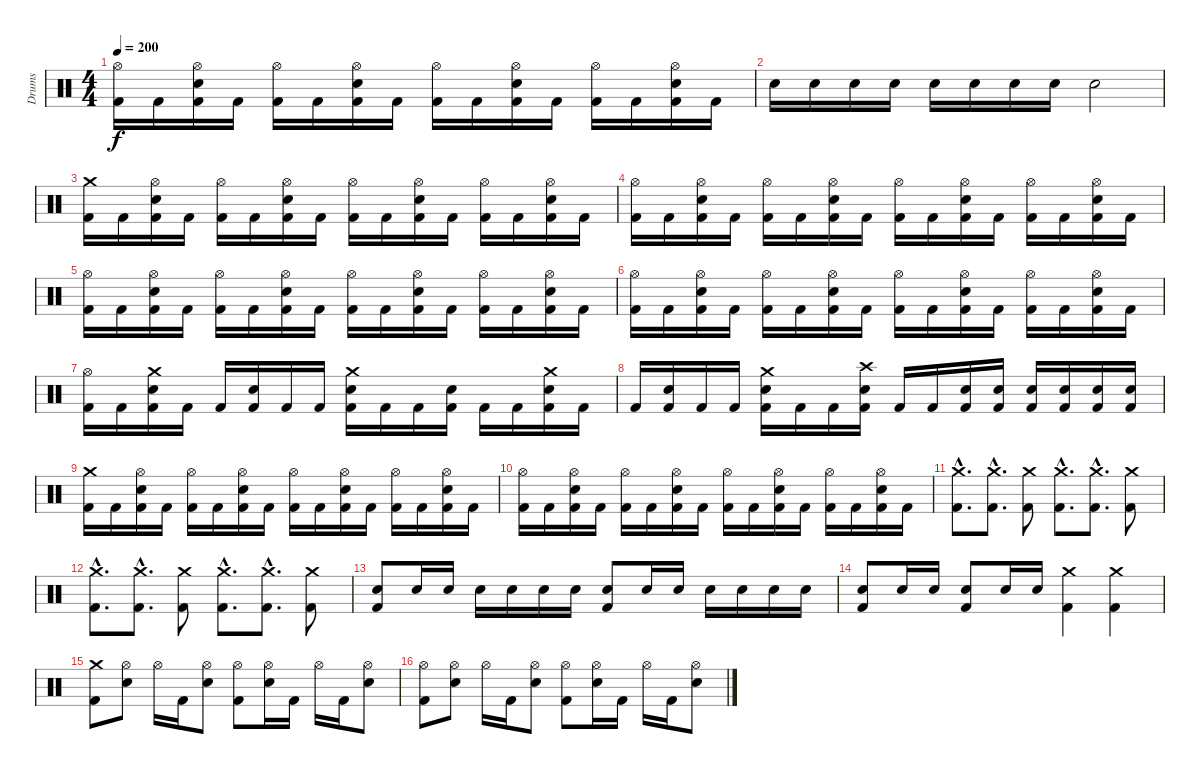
\track ("Drums" "Drums") {instrument percussion}
\staff {score}
\articulation defaults
\ts (4 4)
\tempo 200
\clef neutral
\ks c
("Hi-Hat (open)" "Kick (hit) 2").16{dy f} "Kick (hit) 2".16 ("Hi-Hat (open)" "Snare (hit) 2" "Kick (hit) 2").16 "Kick (hit) 2".16 ("Hi-Hat (open)" "Kick (hit) 2").16 "Kick (hit) 2".16 ("Hi-Hat (open)" "Snare (hit) 2" "Kick (hit) 2").16 "Kick (hit) 2".16 ("Hi-Hat (open)" "Kick (hit) 2").16 "Kick (hit) 2".16 ("Hi-Hat (open)" "Snare (hit) 2" "Kick (hit) 2").16 "Kick (hit) 2".16 ("Hi-Hat (open)" "Kick (hit) 2").16 "Kick (hit) 2".16 ("Hi-Hat (open)" "Snare (hit) 2" "Kick (hit) 2").16 "Kick (hit) 2".16 |
"Snare (hit) 2".16 "Snare (hit) 2".16 "Snare (hit) 2".16 "Snare (hit) 2".16 "Snare (hit) 2".16 "Snare (hit) 2".16 "Snare (hit) 2".16 "Snare (hit) 2".16 "Snare (hit) 2".2 |
("Crash medium (hit)" "Kick (hit) 2").16 "Kick (hit) 2".16 ("Hi-Hat (open)" "Snare (hit) 2" "Kick (hit) 2").16 "Kick (hit) 2".16 ("Hi-Hat (open)" "Kick (hit) 2").16 "Kick (hit) 2".16 ("Hi-Hat (open)" "Snare (hit) 2" "Kick (hit) 2").16 "Kick (hit) 2".16 ("Hi-Hat (open)" "Kick (hit) 2").16 "Kick (hit) 2".16 ("Hi-Hat (open)" "Snare (hit) 2" "Kick (hit) 2").16 "Kick (hit) 2".16 ("Hi-Hat (open)" "Kick (hit) 2").16 "Kick (hit) 2".16 ("Hi-Hat (open)" "Snare (hit) 2" "Kick (hit) 2").16 "Kick (hit) 2".16 |
("Hi-Hat (open)" "Kick (hit) 2").16 "Kick (hit) 2".16 ("Hi-Hat (open)" "Snare (hit) 2" "Kick (hit) 2").16 "Kick (hit) 2".16 ("Hi-Hat (open)" "Kick (hit) 2").16 "Kick (hit) 2".16 ("Hi-Hat (open)" "Snare (hit) 2" "Kick (hit) 2").16 "Kick (hit) 2".16 ("Hi-Hat (open)" "Kick (hit) 2").16 "Kick (hit) 2".16 ("Hi-Hat (open)" "Snare (hit) 2" "Kick (hit) 2").16 "Kick (hit) 2".16 ("Hi-Hat (open)" "Kick (hit) 2").16 "Kick (hit) 2".16 ("Hi-Hat (open)" "Snare (hit) 2" "Kick (hit) 2").16 "Kick (hit) 2".16 |
("Hi-Hat (open)" "Kick (hit) 2").16 "Kick (hit) 2".16 ("Hi-Hat (open)" "Snare (hit) 2" "Kick (hit) 2").16 "Kick (hit) 2".16 ("Hi-Hat (open)" "Kick (hit) 2").16 "Kick (hit) 2".16 ("Hi-Hat (open)" "Snare (hit) 2" "Kick (hit) 2").16 "Kick (hit) 2".16 ("Hi-Hat (open)" "Kick (hit) 2").16 "Kick (hit) 2".16 ("Hi-Hat (open)" "Snare (hit) 2" "Kick (hit) 2").16 "Kick (hit) 2".16 ("Hi-Hat (open)" "Kick (hit) 2").16 "Kick (hit) 2".16 ("Hi-Hat (open)" "Snare (hit) 2" "Kick (hit) 2").16 "Kick (hit) 2".16 |
("Hi-Hat (open)" "Kick (hit) 2").16 "Kick (hit) 2".16 ("Hi-Hat (open)" "Snare (hit) 2" "Kick (hit) 2").16 "Kick (hit) 2".16 ("Hi-Hat (open)" "Kick (hit) 2").16 "Kick (hit) 2".16 ("Hi-Hat (open)" "Snare (hit) 2" "Kick (hit) 2").16 "Kick (hit) 2".16 ("Hi-Hat (open)" "Kick (hit) 2").16 "Kick (hit) 2".16 ("Hi-Hat (open)" "Snare (hit) 2" "Kick (hit) 2").16 "Kick (hit) 2".16 ("Hi-Hat (open)" "Kick (hit) 2").16 "Kick (hit) 2".16 ("Hi-Hat (open)" "Snare (hit) 2" "Kick (hit) 2").16 "Kick (hit) 2".16 |
("Hi-Hat (open)" "Kick (hit) 2").16 "Kick (hit) 2".16 ("Crash medium (hit)" "Snare (hit) 2" "Kick (hit) 2").16 "Kick (hit) 2".16 "Kick (hit) 2".16 ("Snare (hit) 2" "Kick (hit) 2").16 "Kick (hit) 2".16 "Kick (hit) 2".16 ("Crash medium (hit)" "Snare (hit) 2" "Kick (hit) 2").16 "Kick (hit) 2".16 "Kick (hit) 2".16 ("Snare (hit) 2" "Kick (hit) 2").16 "Kick (hit) 2".16 "Kick (hit) 2".16 ("Crash medium (hit)" "Snare (hit) 2" "Kick (hit) 2").16 "Kick (hit) 2".16 |
"Kick (hit) 2".16 ("Snare (hit) 2" "Kick (hit) 2").16 "Kick (hit) 2".16 "Kick (hit) 2".16 ("Crash medium (hit)" "Snare (hit) 2" "Kick (hit) 2").16 "Kick (hit) 2".16 "Kick (hit) 2".16 ("Crash high (hit)" "Snare (hit) 2" "Kick (hit) 2").16 "Kick (hit) 2".16 "Kick (hit) 2".16 ("Snare (hit) 2" "Kick (hit) 2").16 ("Snare (hit) 2" "Kick (hit) 2").16 ("Snare (hit) 2" "Kick (hit) 2").16 ("Snare (hit) 2" "Kick (hit) 2").16 ("Snare (hit) 2" "Kick (hit) 2").16 ("Snare (hit) 2" "Kick (hit) 2").16 |
("Crash medium (hit)" "Kick (hit) 2").16 "Kick (hit) 2".16 ("Hi-Hat (open)" "Snare (hit) 2" "Kick (hit) 2").16 "Kick (hit) 2".16 ("Hi-Hat (open)" "Kick (hit) 2").16 "Kick (hit) 2".16 ("Hi-Hat (open)" "Snare (hit) 2" "Kick (hit) 2").16 "Kick (hit) 2".16 ("Hi-Hat (open)" "Kick (hit) 2").16 "Kick (hit) 2".16 ("Hi-Hat (open)" "Snare (hit) 2" "Kick (hit) 2").16 "Kick (hit) 2".16 ("Hi-Hat (open)" "Kick (hit) 2").16 "Kick (hit) 2".16 ("Hi-Hat (open)" "Snare (hit) 2" "Kick (hit) 2").16 "Kick (hit) 2".16 |
("Hi-Hat (open)" "Kick (hit) 2").16 "Kick (hit) 2".16 ("Hi-Hat (open)" "Snare (hit) 2" "Kick (hit) 2").16 "Kick (hit) 2".16 ("Hi-Hat (open)" "Kick (hit) 2").16 "Kick (hit) 2".16 ("Hi-Hat (open)" "Snare (hit) 2" "Kick (hit) 2").16 "Kick (hit) 2".16 ("Hi-Hat (open)" "Kick (hit) 2").16 "Kick (hit) 2".16 ("Hi-Hat (open)" "Snare (hit) 2" "Kick (hit) 2").16 "Kick (hit) 2".16 ("Hi-Hat (open)" "Kick (hit) 2").16 "Kick (hit) 2".16 ("Hi-Hat (open)" "Snare (hit) 2" "Kick (hit) 2").16 "Kick (hit) 2".16 |
("Crash medium (hit)"{hac} "Kick (hit) 2"{hac}).8{d} ("Crash medium (hit)"{hac} "Kick (hit) 2"{hac}).8{d} ("Crash medium (hit)" "Kick (hit) 2").8 ("Crash medium (hit)"{hac} "Kick (hit) 2"{hac}).8{d} ("Crash medium (hit)"{hac} "Kick (hit) 2"{hac}).8{d} ("Crash medium (hit)" "Kick (hit) 2").8 |
("Crash medium (hit)"{hac} "Kick (hit) 2"{hac}).8{d} ("Crash medium (hit)"{hac} "Kick (hit) 2"{hac}).8{d} ("Crash medium (hit)" "Kick (hit) 2").8 ("Crash medium (hit)"{hac} "Kick (hit) 2"{hac}).8{d} ("Crash medium (hit)"{hac} "Kick (hit) 2"{hac}).8{d} ("Crash medium (hit)" "Kick (hit) 2").8 |
("Snare (hit) 2" "Kick (hit) 2").8 "Snare (hit) 2".16 "Snare (hit) 2".16 "Snare (hit) 2".16 "Snare (hit) 2".16 "Snare (hit) 2".16 "Snare (hit) 2".16 ("Snare (hit) 2" "Kick (hit) 2").8 "Snare (hit) 2".16 "Snare (hit) 2".16 "Snare (hit) 2".16 "Snare (hit) 2".16 "Snare (hit) 2".16 "Snare (hit) 2".16 |
("Snare (hit) 2" "Kick (hit) 2").8 "Snare (hit) 2".16 "Snare (hit) 2".16 ("Snare (hit) 2" "Kick (hit) 2").8 "Snare (hit) 2".16 "Snare (hit) 2".16 ("Crash medium (hit)" "Kick (hit) 2").4 ("Crash medium (hit)" "Kick (hit) 2").4 |
("Crash medium (hit)" "Kick (hit) 2").8 ("Hi-Hat (open)" "Snare (hit) 2").8 "Hi-Hat (open)".16 "Kick (hit) 2".16 ("Hi-Hat (open)" "Snare (hit) 2").8 ("Hi-Hat (open)" "Kick (hit) 2").8 ("Hi-Hat (open)" "Snare (hit) 2").16 "Kick (hit) 2".16 "Hi-Hat (open)".16 "Kick (hit) 2".16 ("Hi-Hat (open)" "Snare (hit) 2").8 |
("Hi-Hat (open)" "Kick (hit) 2").8 ("Hi-Hat (open)" "Snare (hit) 2").8 "Hi-Hat (open)".16 "Kick (hit) 2".16 ("Hi-Hat (open)" "Snare (hit) 2").8 ("Hi-Hat (open)" "Kick (hit) 2").8 ("Hi-Hat (open)" "Snare (hit) 2").16 "Kick (hit) 2".16 "Hi-Hat (open)".16 "Kick (hit) 2".16 ("Hi-Hat (open)" "Snare (hit) 2").8
